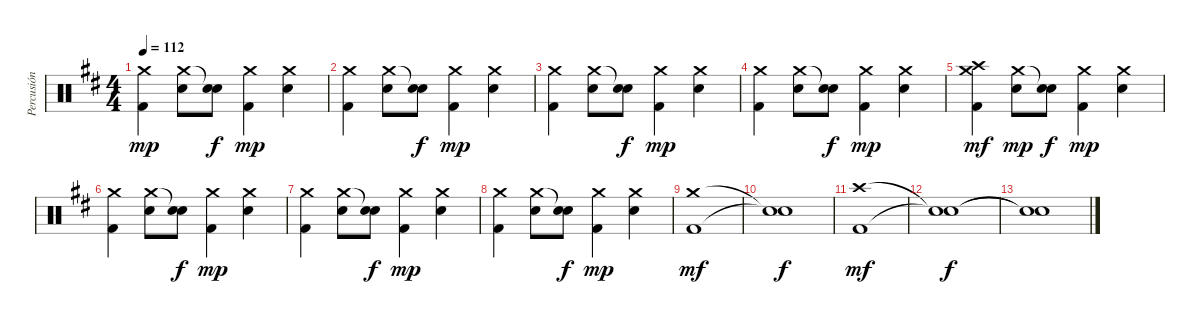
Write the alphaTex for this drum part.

\track ("Percusión" "Percusión") {instrument percussion}
\staff {score}
\articulation defaults
\ts (4 4)
\tempo 112
\clef neutral
\ks d
("Crash medium (hit)" "Kick (hit) 2").4{dy mp} ("Crash medium (hit)" "Snare (hit) 2").8 ("Snare (hit)"{t} "Snare (hit) 2").8{dy f} ("Crash medium (hit)" "Kick (hit) 2").4{dy mp} ("Crash medium (hit)" "Snare (hit) 2").4 |
("Crash medium (hit)" "Kick (hit) 2").4 ("Crash medium (hit)" "Snare (hit) 2").8 ("Snare (hit)"{t} "Snare (hit) 2").8{dy f} ("Crash medium (hit)" "Kick (hit) 2").4{dy mp} ("Crash medium (hit)" "Snare (hit) 2").4 |
("Crash medium (hit)" "Kick (hit) 2").4 ("Crash medium (hit)" "Snare (hit) 2").8 ("Snare (hit)"{t} "Snare (hit) 2").8{dy f} ("Crash medium (hit)" "Kick (hit) 2").4{dy mp} ("Crash medium (hit)" "Snare (hit) 2").4 |
("Crash medium (hit)" "Kick (hit) 2").4 ("Crash medium (hit)" "Snare (hit) 2").8 ("Snare (hit)"{t} "Snare (hit) 2").8{dy f} ("Crash medium (hit)" "Kick (hit) 2").4{dy mp} ("Crash medium (hit)" "Snare (hit) 2").4 |
("Crash high (hit)" "Crash medium (hit)" "Kick (hit) 2").4{dy mf} ("Crash medium (hit)" "Snare (hit) 2").8{dy mp} ("Snare (hit)"{t} "Snare (hit) 2").8{dy f} ("Crash medium (hit)" "Kick (hit) 2").4{dy mp} ("Crash medium (hit)" "Snare (hit) 2").4 |
("Crash medium (hit)" "Kick (hit) 2").4 ("Crash medium (hit)" "Snare (hit) 2").8 ("Snare (hit)"{t} "Snare (hit) 2").8{dy f} ("Crash medium (hit)" "Kick (hit) 2").4{dy mp} ("Crash medium (hit)" "Snare (hit) 2").4 |
("Crash medium (hit)" "Kick (hit) 2").4 ("Crash medium (hit)" "Snare (hit) 2").8 ("Snare (hit)"{t} "Snare (hit) 2").8{dy f} ("Crash medium (hit)" "Kick (hit) 2").4{dy mp} ("Crash medium (hit)" "Snare (hit) 2").4 |
("Crash medium (hit)" "Kick (hit) 2").4 ("Crash medium (hit)" "Snare (hit) 2").8 ("Snare (hit)"{t} "Snare (hit) 2").8{dy f} ("Crash medium (hit)" "Kick (hit) 2").4{dy mp} ("Crash medium (hit)" "Snare (hit) 2").4 |
("Crash medium (hit)" "Kick (hit) 2").1{dy mf} |
("Snare (hit)"{t} "Snare (hit)"{t}).1{dy f} |
("Crash high (hit)" "Kick (hit) 2").1{dy mf} |
("Snare (hit)"{t} "Snare (hit)"{t}).1{dy f} |
("Snare (hit)"{t} "Snare (hit)"{t}).1
